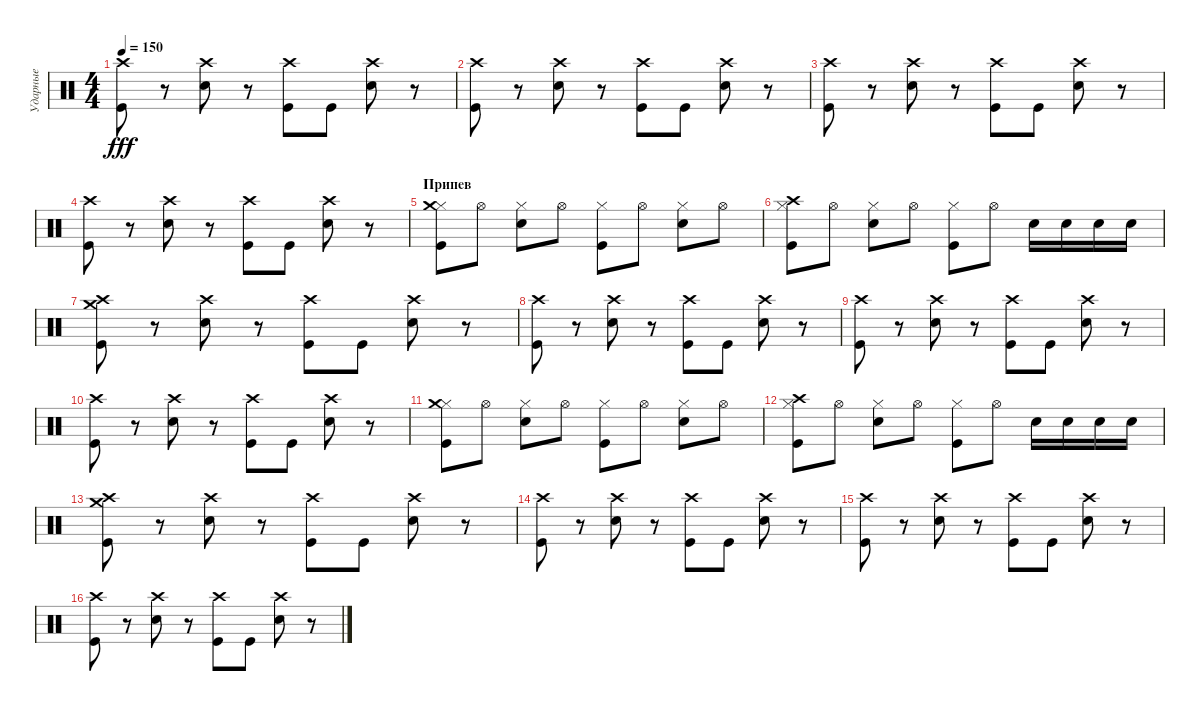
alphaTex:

\track ("Ударные" "Ударные") {instrument percussion}
\staff {score}
\articulation defaults
\ts (4 4)
\tempo 150
\clef neutral
\ks c
("Crash high (hit)" "Kick (hit)").8{dy fff} r.8 ("Crash high (hit)" "Electric Snare (hit)").8 r.8 ("Crash high (hit)" "Kick (hit)").8 "Kick (hit)".8 ("Crash high (hit)" "Electric Snare (hit)").8 r.8 |
("Crash high (hit)" "Kick (hit)").8 r.8 ("Crash high (hit)" "Electric Snare (hit)").8 r.8 ("Crash high (hit)" "Kick (hit)").8 "Kick (hit)".8 ("Crash high (hit)" "Electric Snare (hit)").8 r.8 |
("Crash high (hit)" "Kick (hit)").8 r.8 ("Crash high (hit)" "Electric Snare (hit)").8 r.8 ("Crash high (hit)" "Kick (hit)").8 "Kick (hit)".8 ("Crash high (hit)" "Electric Snare (hit)").8 r.8 |
("Crash high (hit)" "Kick (hit)").8 r.8 ("Crash high (hit)" "Electric Snare (hit)").8 r.8 ("Crash high (hit)" "Kick (hit)").8 "Kick (hit)".8 ("Crash high (hit)" "Electric Snare (hit)").8 r.8 |
\section ("" "Припев")
("Hi-Hat (closed)" "Kick (hit)" "Crash medium (hit)").8 "Hi-Hat (open)".8 ("Hi-Hat (closed)" "Electric Snare (hit)").8 "Hi-Hat (open)".8 ("Hi-Hat (closed)" "Kick (hit)").8 "Hi-Hat (open)".8 ("Hi-Hat (closed)" "Electric Snare (hit)").8 "Hi-Hat (open)".8 |
("Hi-Hat (closed)" "Kick (hit)" "Crash high (hit)").8 "Hi-Hat (open)".8 ("Hi-Hat (closed)" "Electric Snare (hit)").8 "Hi-Hat (open)".8 ("Hi-Hat (closed)" "Kick (hit)").8 "Hi-Hat (open)".8 "Electric Snare (hit)".16 "Electric Snare (hit)".16 "Electric Snare (hit)".16 "Electric Snare (hit)".16 |
("Crash high (hit)" "Kick (hit)" "Crash medium (hit)").8 r.8 ("Crash high (hit)" "Electric Snare (hit)").8 r.8 ("Crash high (hit)" "Kick (hit)").8 "Kick (hit)".8 ("Crash high (hit)" "Electric Snare (hit)").8 r.8 |
("Crash high (hit)" "Kick (hit)").8 r.8 ("Crash high (hit)" "Electric Snare (hit)").8 r.8 ("Crash high (hit)" "Kick (hit)").8 "Kick (hit)".8 ("Crash high (hit)" "Electric Snare (hit)").8 r.8 |
("Crash high (hit)" "Kick (hit)").8 r.8 ("Crash high (hit)" "Electric Snare (hit)").8 r.8 ("Crash high (hit)" "Kick (hit)").8 "Kick (hit)".8 ("Crash high (hit)" "Electric Snare (hit)").8 r.8 |
("Crash high (hit)" "Kick (hit)").8 r.8 ("Crash high (hit)" "Electric Snare (hit)").8 r.8 ("Crash high (hit)" "Kick (hit)").8 "Kick (hit)".8 ("Crash high (hit)" "Electric Snare (hit)").8 r.8 |
("Hi-Hat (closed)" "Kick (hit)" "Crash medium (hit)").8 "Hi-Hat (open)".8 ("Hi-Hat (closed)" "Electric Snare (hit)").8 "Hi-Hat (open)".8 ("Hi-Hat (closed)" "Kick (hit)").8 "Hi-Hat (open)".8 ("Hi-Hat (closed)" "Electric Snare (hit)").8 "Hi-Hat (open)".8 |
("Hi-Hat (closed)" "Kick (hit)" "Crash high (hit)").8 "Hi-Hat (open)".8 ("Hi-Hat (closed)" "Electric Snare (hit)").8 "Hi-Hat (open)".8 ("Hi-Hat (closed)" "Kick (hit)").8 "Hi-Hat (open)".8 "Electric Snare (hit)".16 "Electric Snare (hit)".16 "Electric Snare (hit)".16 "Electric Snare (hit)".16 |
("Crash high (hit)" "Kick (hit)" "Crash medium (hit)").8 r.8 ("Crash high (hit)" "Electric Snare (hit)").8 r.8 ("Crash high (hit)" "Kick (hit)").8 "Kick (hit)".8 ("Crash high (hit)" "Electric Snare (hit)").8 r.8 |
("Crash high (hit)" "Kick (hit)").8 r.8 ("Crash high (hit)" "Electric Snare (hit)").8 r.8 ("Crash high (hit)" "Kick (hit)").8 "Kick (hit)".8 ("Crash high (hit)" "Electric Snare (hit)").8 r.8 |
("Crash high (hit)" "Kick (hit)").8 r.8 ("Crash high (hit)" "Electric Snare (hit)").8 r.8 ("Crash high (hit)" "Kick (hit)").8 "Kick (hit)".8 ("Crash high (hit)" "Electric Snare (hit)").8 r.8 |
("Crash high (hit)" "Kick (hit)").8 r.8 ("Crash high (hit)" "Electric Snare (hit)").8 r.8 ("Crash high (hit)" "Kick (hit)").8 "Kick (hit)".8 ("Crash high (hit)" "Electric Snare (hit)").8 r.8
